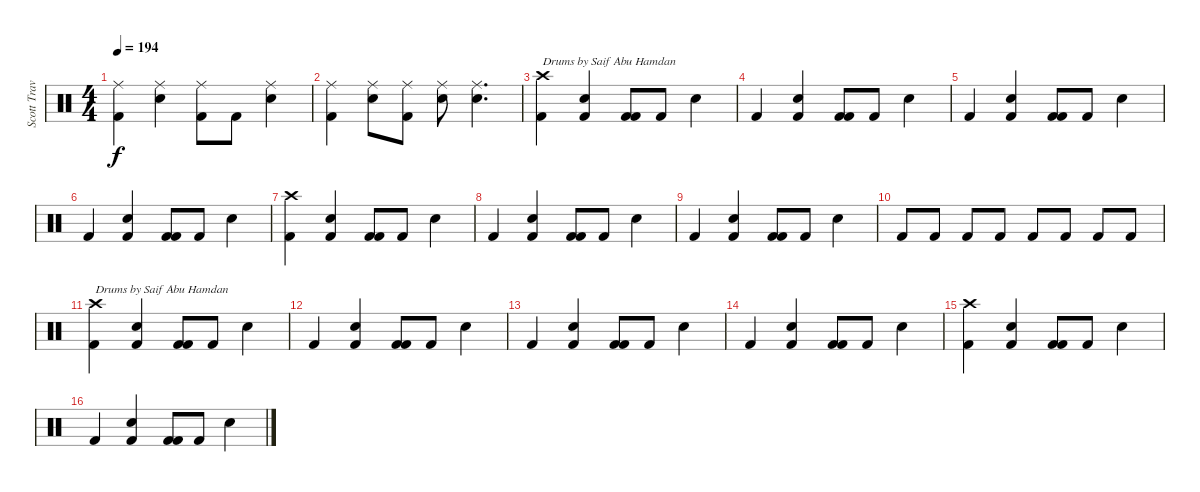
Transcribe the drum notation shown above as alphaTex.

\track ("Scott Travis" "Scott Trav") {instrument percussion}
\staff {score}
\articulation defaults
\ts (4 4)
\tempo 194
\clef neutral
\ks c
("Kick (hit) 2" "Ride (middle)").4{dy f} ("Ride (middle)" "Snare (hit) 2").4 ("Ride (middle)" "Kick (hit) 2").8 "Kick (hit) 2".8 ("Snare (hit) 2" "Ride (middle)").4 |
("Kick (hit) 2" "Ride (middle)").4 ("Ride (middle)" "Snare (hit) 2").8 ("Ride (middle)" "Kick (hit) 2").8 ("Ride (middle)" "Snare (hit) 2").8 ("Ride (middle)" "Snare (hit) 2").4{d} |
("Kick (hit) 2" "Crash high (hit)").4{txt "Drums by Saif Abu Hamdan"} ("Kick (hit) 2" "Snare (hit) 2").4 ("Kick (hit) 2" "Kick (hit) 2").8 "Kick (hit) 2".8 "Snare (hit) 2".4 |
"Kick (hit) 2".4 ("Kick (hit) 2" "Snare (hit) 2").4 ("Kick (hit) 2" "Kick (hit) 2").8 "Kick (hit) 2".8 "Snare (hit) 2".4 |
"Kick (hit) 2".4 ("Kick (hit) 2" "Snare (hit) 2").4 ("Kick (hit) 2" "Kick (hit) 2").8 "Kick (hit) 2".8 "Snare (hit) 2".4 |
"Kick (hit) 2".4 ("Kick (hit) 2" "Snare (hit) 2").4 ("Kick (hit) 2" "Kick (hit) 2").8 "Kick (hit) 2".8 "Snare (hit) 2".4 |
("Kick (hit) 2" "Crash high (hit)").4 ("Kick (hit) 2" "Snare (hit) 2").4 ("Kick (hit) 2" "Kick (hit) 2").8 "Kick (hit) 2".8 "Snare (hit) 2".4 |
"Kick (hit) 2".4 ("Kick (hit) 2" "Snare (hit) 2").4 ("Kick (hit) 2" "Kick (hit) 2").8 "Kick (hit) 2".8 "Snare (hit) 2".4 |
"Kick (hit) 2".4 ("Kick (hit) 2" "Snare (hit) 2").4 ("Kick (hit) 2" "Kick (hit) 2").8 "Kick (hit) 2".8 "Snare (hit) 2".4 |
"Kick (hit) 2".8 "Kick (hit) 2".8 "Kick (hit) 2".8 "Kick (hit) 2".8 "Kick (hit) 2".8 "Kick (hit) 2".8 "Kick (hit) 2".8 "Kick (hit) 2".8 |
("Kick (hit) 2" "Crash high (hit)").4{txt "Drums by Saif Abu Hamdan"} ("Kick (hit) 2" "Snare (hit) 2").4 ("Kick (hit) 2" "Kick (hit) 2").8 "Kick (hit) 2".8 "Snare (hit) 2".4 |
"Kick (hit) 2".4 ("Kick (hit) 2" "Snare (hit) 2").4 ("Kick (hit) 2" "Kick (hit) 2").8 "Kick (hit) 2".8 "Snare (hit) 2".4 |
"Kick (hit) 2".4 ("Kick (hit) 2" "Snare (hit) 2").4 ("Kick (hit) 2" "Kick (hit) 2").8 "Kick (hit) 2".8 "Snare (hit) 2".4 |
"Kick (hit) 2".4 ("Kick (hit) 2" "Snare (hit) 2").4 ("Kick (hit) 2" "Kick (hit) 2").8 "Kick (hit) 2".8 "Snare (hit) 2".4 |
("Kick (hit) 2" "Crash high (hit)").4 ("Kick (hit) 2" "Snare (hit) 2").4 ("Kick (hit) 2" "Kick (hit) 2").8 "Kick (hit) 2".8 "Snare (hit) 2".4 |
"Kick (hit) 2".4 ("Kick (hit) 2" "Snare (hit) 2").4 ("Kick (hit) 2" "Kick (hit) 2").8 "Kick (hit) 2".8 "Snare (hit) 2".4
